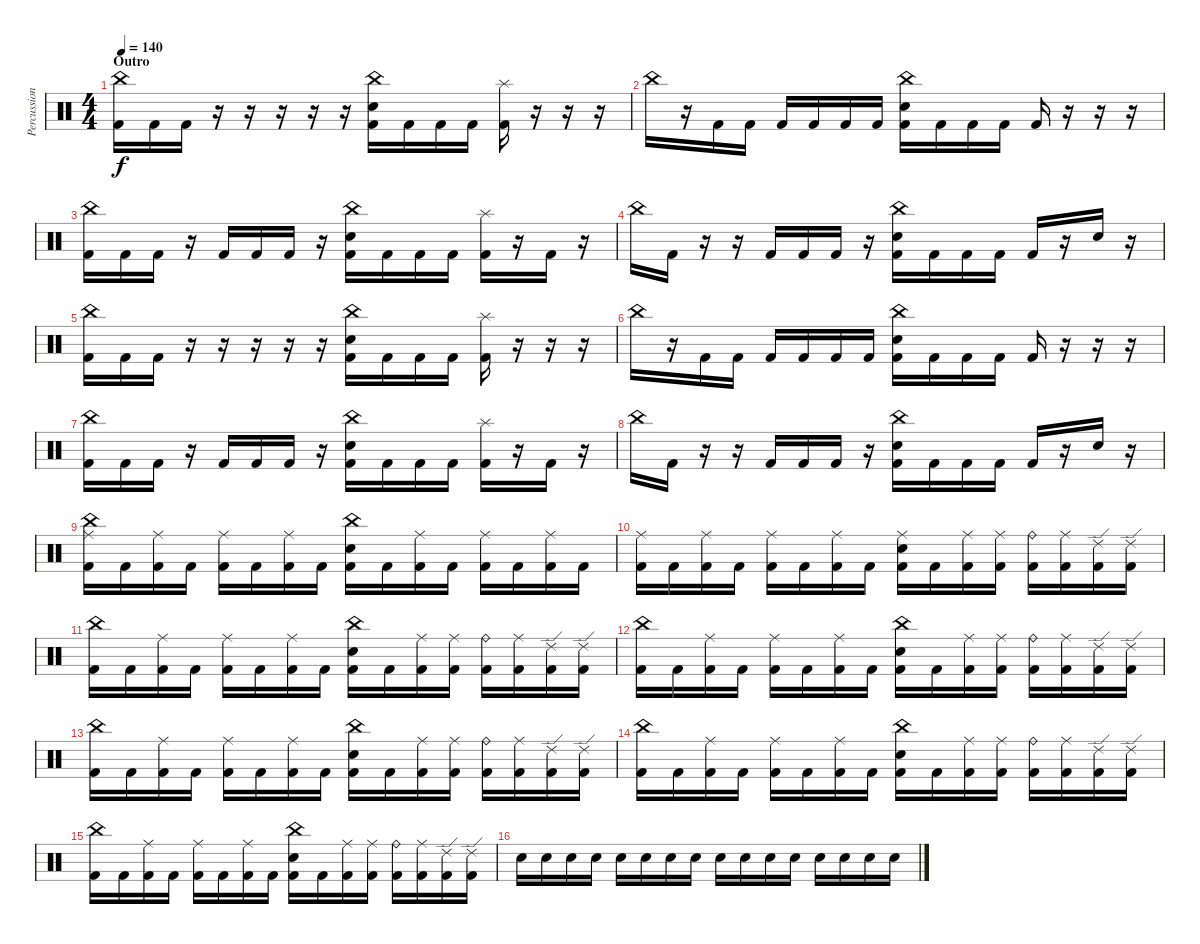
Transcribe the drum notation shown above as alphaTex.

\track ("Percussion" "Percussion") {instrument percussion}
\staff {score}
\articulation defaults
\ts (4 4)
\section ("" "Outro")
\tempo 140
\clef neutral
\ks c
("China (hit)" "Kick (hit) 2").16{dy f} "Kick (hit) 2".16 "Kick (hit) 2".16 r.16 r.16 r.16 r.16 r.16 ("China (hit)" "Snare (hit) 2" "Kick (hit) 2").16 "Kick (hit) 2".16 "Kick (hit) 2".16 "Kick (hit) 2".16 ("Splash (hit)" "Kick (hit) 2").16 r.16 r.16 r.16 |
"China (hit)".16 r.16 "Kick (hit) 2".16 "Kick (hit) 2".16 "Kick (hit) 2".16 "Kick (hit) 2".16 "Kick (hit) 2".16 "Kick (hit) 2".16 ("Snare (hit) 2" "China (hit)" "Kick (hit) 2").16 "Kick (hit) 2".16 "Kick (hit) 2".16 "Kick (hit) 2".16 "Kick (hit) 2".16 r.16 r.16 r.16 |
("China (hit)" "Kick (hit) 2").16 "Kick (hit) 2".16 "Kick (hit) 2".16 r.16 "Kick (hit) 2".16 "Kick (hit) 2".16 "Kick (hit) 2".16 r.16 ("Snare (hit) 2" "China (hit)" "Kick (hit) 2").16 "Kick (hit) 2".16 "Kick (hit) 2".16 "Kick (hit) 2".16 ("Splash (hit)" "Kick (hit) 2").16 r.16 "Kick (hit) 2".16 r.16 |
"China (hit)".16 "Kick (hit) 2".16 r.16 r.16 "Kick (hit) 2".16 "Kick (hit) 2".16 "Kick (hit) 2".16 r.16 ("Snare (hit) 2" "China (hit)" "Kick (hit) 2").16 "Kick (hit) 2".16 "Kick (hit) 2".16 "Kick (hit) 2".16 "Kick (hit) 2".16 r.16 "Snare (hit) 2".16 r.16 |
("China (hit)" "Kick (hit) 2").16 "Kick (hit) 2".16 "Kick (hit) 2".16 r.16 r.16 r.16 r.16 r.16 ("China (hit)" "Snare (hit) 2" "Kick (hit) 2").16 "Kick (hit) 2".16 "Kick (hit) 2".16 "Kick (hit) 2".16 ("Splash (hit)" "Kick (hit) 2").16 r.16 r.16 r.16 |
"China (hit)".16 r.16 "Kick (hit) 2".16 "Kick (hit) 2".16 "Kick (hit) 2".16 "Kick (hit) 2".16 "Kick (hit) 2".16 "Kick (hit) 2".16 ("Snare (hit) 2" "China (hit)" "Kick (hit) 2").16 "Kick (hit) 2".16 "Kick (hit) 2".16 "Kick (hit) 2".16 "Kick (hit) 2".16 r.16 r.16 r.16 |
("China (hit)" "Kick (hit) 2").16 "Kick (hit) 2".16 "Kick (hit) 2".16 r.16 "Kick (hit) 2".16 "Kick (hit) 2".16 "Kick (hit) 2".16 r.16 ("Snare (hit) 2" "China (hit)" "Kick (hit) 2").16 "Kick (hit) 2".16 "Kick (hit) 2".16 "Kick (hit) 2".16 ("Splash (hit)" "Kick (hit) 2").16 r.16 "Kick (hit) 2".16 r.16 |
"China (hit)".16 "Kick (hit) 2".16 r.16 r.16 "Kick (hit) 2".16 "Kick (hit) 2".16 "Kick (hit) 2".16 r.16 ("Snare (hit) 2" "China (hit)" "Kick (hit) 2").16 "Kick (hit) 2".16 "Kick (hit) 2".16 "Kick (hit) 2".16 "Kick (hit) 2".16 r.16 "Snare (hit) 2".16 r.16 |
("Ride (middle)" "China (hit)" "Kick (hit) 2").16 "Kick (hit) 2".16 ("Ride (middle)" "Kick (hit) 2").16 "Kick (hit) 2".16 ("Ride (middle)" "Kick (hit) 2").16 "Kick (hit) 2".16 ("Ride (middle)" "Kick (hit) 2").16 "Kick (hit) 2".16 ("China (hit)" "Snare (hit) 2" "Kick (hit) 2").16 "Kick (hit) 2".16 ("Ride (middle)" "Kick (hit) 2").16 "Kick (hit) 2".16 ("Ride (middle)" "Kick (hit) 2").16 "Kick (hit) 2".16 ("Ride (middle)" "Kick (hit) 2").16 "Kick (hit) 2".16 |
("Ride (middle)" "Kick (hit) 2").16 "Kick (hit) 2".16 ("Ride (middle)" "Kick (hit) 2").16 "Kick (hit) 2".16 ("Ride (middle)" "Kick (hit) 2").16 "Kick (hit) 2".16 ("Ride (middle)" "Kick (hit) 2").16 "Kick (hit) 2".16 ("Ride (middle)" "Snare (hit) 2" "Kick (hit) 2").16 "Kick (hit) 2".16 ("Ride (middle)" "Kick (hit) 2").16 ("Ride (middle)" "Kick (hit) 2").16 ("Ride (bell)" "Kick (hit) 2").16 ("Ride (middle)" "Kick (hit) 2").16 ("Ride (edge) 2" "Kick (hit) 2").16 ("Ride (edge) 2" "Kick (hit) 2").16 |
("China (hit)" "Kick (hit) 2").16 "Kick (hit) 2".16 ("Ride (middle)" "Kick (hit) 2").16 "Kick (hit) 2".16 ("Ride (middle)" "Kick (hit) 2").16 "Kick (hit) 2".16 ("Ride (middle)" "Kick (hit) 2").16 "Kick (hit) 2".16 ("China (hit)" "Snare (hit) 2" "Kick (hit) 2").16 "Kick (hit) 2".16 ("Ride (middle)" "Kick (hit) 2").16 ("Ride (middle)" "Kick (hit) 2").16 ("Ride (bell)" "Kick (hit) 2").16 ("Ride (middle)" "Kick (hit) 2").16 ("Ride (edge) 2" "Kick (hit) 2").16 ("Ride (edge) 2" "Kick (hit) 2").16 |
("China (hit)" "Kick (hit) 2").16 "Kick (hit) 2".16 ("Ride (middle)" "Kick (hit) 2").16 "Kick (hit) 2".16 ("Ride (middle)" "Kick (hit) 2").16 "Kick (hit) 2".16 ("Ride (middle)" "Kick (hit) 2").16 "Kick (hit) 2".16 ("China (hit)" "Snare (hit) 2" "Kick (hit) 2").16 "Kick (hit) 2".16 ("Ride (middle)" "Kick (hit) 2").16 ("Ride (middle)" "Kick (hit) 2").16 ("Ride (bell)" "Kick (hit) 2").16 ("Ride (middle)" "Kick (hit) 2").16 ("Ride (edge) 2" "Kick (hit) 2").16 ("Ride (edge) 2" "Kick (hit) 2").16 |
("China (hit)" "Kick (hit) 2").16 "Kick (hit) 2".16 ("Ride (middle)" "Kick (hit) 2").16 "Kick (hit) 2".16 ("Ride (middle)" "Kick (hit) 2").16 "Kick (hit) 2".16 ("Ride (middle)" "Kick (hit) 2").16 "Kick (hit) 2".16 ("China (hit)" "Snare (hit) 2" "Kick (hit) 2").16 "Kick (hit) 2".16 ("Ride (middle)" "Kick (hit) 2").16 ("Ride (middle)" "Kick (hit) 2").16 ("Ride (bell)" "Kick (hit) 2").16 ("Ride (middle)" "Kick (hit) 2").16 ("Ride (edge) 2" "Kick (hit) 2").16 ("Ride (edge) 2" "Kick (hit) 2").16 |
("China (hit)" "Kick (hit) 2").16 "Kick (hit) 2".16 ("Ride (middle)" "Kick (hit) 2").16 "Kick (hit) 2".16 ("Ride (middle)" "Kick (hit) 2").16 "Kick (hit) 2".16 ("Ride (middle)" "Kick (hit) 2").16 "Kick (hit) 2".16 ("China (hit)" "Snare (hit) 2" "Kick (hit) 2").16 "Kick (hit) 2".16 ("Ride (middle)" "Kick (hit) 2").16 ("Ride (middle)" "Kick (hit) 2").16 ("Ride (bell)" "Kick (hit) 2").16 ("Ride (middle)" "Kick (hit) 2").16 ("Ride (edge) 2" "Kick (hit) 2").16 ("Ride (edge) 2" "Kick (hit) 2").16 |
("China (hit)" "Kick (hit) 2").16 "Kick (hit) 2".16 ("Ride (middle)" "Kick (hit) 2").16 "Kick (hit) 2".16 ("Ride (middle)" "Kick (hit) 2").16 "Kick (hit) 2".16 ("Ride (middle)" "Kick (hit) 2").16 "Kick (hit) 2".16 ("China (hit)" "Snare (hit) 2" "Kick (hit) 2").16 "Kick (hit) 2".16 ("Ride (middle)" "Kick (hit) 2").16 ("Ride (middle)" "Kick (hit) 2").16 ("Ride (bell)" "Kick (hit) 2").16 ("Ride (middle)" "Kick (hit) 2").16 ("Ride (edge) 2" "Kick (hit) 2").16 ("Ride (edge) 2" "Kick (hit) 2").16 |
"Snare (hit) 2".16 "Snare (hit) 2".16 "Snare (hit) 2".16 "Snare (hit) 2".16 "Snare (hit) 2".16 "Snare (hit) 2".16 "Snare (hit) 2".16 "Snare (hit) 2".16 "Snare (hit) 2".16 "Snare (hit) 2".16 "Snare (hit) 2".16 "Snare (hit) 2".16 "Snare (hit) 2".16 "Snare (hit) 2".16 "Snare (hit) 2".16 "Snare (hit) 2".16
